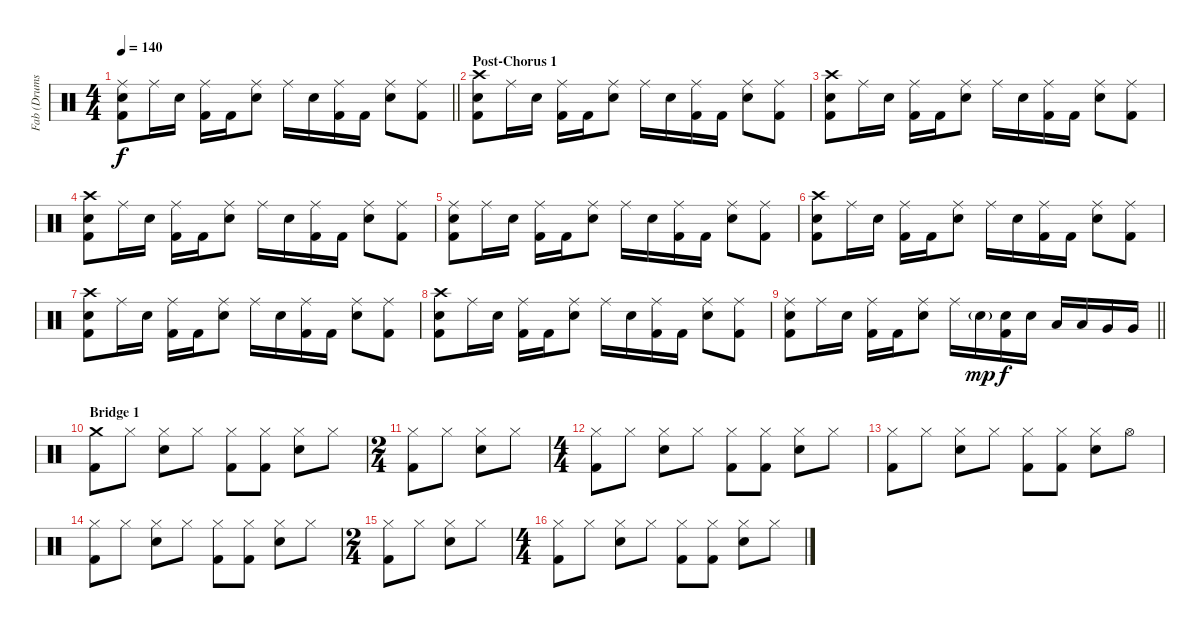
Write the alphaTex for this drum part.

\track ("Fab (Drums)" "Fab (Drums") {instrument percussion}
\staff {score}
\articulation defaults
\ts (4 4)
\tempo 140
\clef neutral
\barLineRight lightlight
\ks c
("Ride (middle)" "Snare (hit) 2" "Kick (hit) 2").8{dy f} "Ride (middle)".16 "Snare (hit) 2".16 ("Ride (middle)" "Kick (hit) 2").16 "Kick (hit) 2".16 ("Ride (middle)" "Snare (hit) 2").8 "Ride (middle)".16 "Snare (hit) 2".16 ("Ride (middle)" "Kick (hit) 2").16 "Kick (hit) 2".16 ("Ride (middle)" "Snare (hit) 2").8 ("Ride (middle)" "Kick (hit) 2").8 |
\section ("" "Post-Chorus 1")
("Crash high (hit)" "Snare (hit) 2" "Kick (hit) 2").8 "Ride (middle)".16 "Snare (hit) 2".16 ("Ride (middle)" "Kick (hit) 2").16 "Kick (hit) 2".16 ("Ride (middle)" "Snare (hit) 2").8 "Ride (middle)".16 "Snare (hit) 2".16 ("Ride (middle)" "Kick (hit) 2").16 "Kick (hit) 2".16 ("Ride (middle)" "Snare (hit) 2").8 ("Ride (middle)" "Kick (hit) 2").8 |
("Crash high (hit)" "Snare (hit) 2" "Kick (hit) 2").8 "Ride (middle)".16 "Snare (hit) 2".16 ("Ride (middle)" "Kick (hit) 2").16 "Kick (hit) 2".16 ("Ride (middle)" "Snare (hit) 2").8 "Ride (middle)".16 "Snare (hit) 2".16 ("Ride (middle)" "Kick (hit) 2").16 "Kick (hit) 2".16 ("Ride (middle)" "Snare (hit) 2").8 ("Ride (middle)" "Kick (hit) 2").8 |
("Crash high (hit)" "Snare (hit) 2" "Kick (hit) 2").8 "Ride (middle)".16 "Snare (hit) 2".16 ("Ride (middle)" "Kick (hit) 2").16 "Kick (hit) 2".16 ("Ride (middle)" "Snare (hit) 2").8 "Ride (middle)".16 "Snare (hit) 2".16 ("Ride (middle)" "Kick (hit) 2").16 "Kick (hit) 2".16 ("Ride (middle)" "Snare (hit) 2").8 ("Ride (middle)" "Kick (hit) 2").8 |
("Ride (middle)" "Snare (hit) 2" "Kick (hit) 2").8 "Ride (middle)".16 "Snare (hit) 2".16 ("Ride (middle)" "Kick (hit) 2").16 "Kick (hit) 2".16 ("Ride (middle)" "Snare (hit) 2").8 "Ride (middle)".16 "Snare (hit) 2".16 ("Ride (middle)" "Kick (hit) 2").16 "Kick (hit) 2".16 ("Ride (middle)" "Snare (hit) 2").8 ("Ride (middle)" "Kick (hit) 2").8 |
("Crash high (hit)" "Snare (hit) 2" "Kick (hit) 2").8 "Ride (middle)".16 "Snare (hit) 2".16 ("Ride (middle)" "Kick (hit) 2").16 "Kick (hit) 2".16 ("Ride (middle)" "Snare (hit) 2").8 "Ride (middle)".16 "Snare (hit) 2".16 ("Ride (middle)" "Kick (hit) 2").16 "Kick (hit) 2".16 ("Ride (middle)" "Snare (hit) 2").8 ("Ride (middle)" "Kick (hit) 2").8 |
("Crash high (hit)" "Snare (hit) 2" "Kick (hit) 2").8 "Ride (middle)".16 "Snare (hit) 2".16 ("Ride (middle)" "Kick (hit) 2").16 "Kick (hit) 2".16 ("Ride (middle)" "Snare (hit) 2").8 "Ride (middle)".16 "Snare (hit) 2".16 ("Ride (middle)" "Kick (hit) 2").16 "Kick (hit) 2".16 ("Ride (middle)" "Snare (hit) 2").8 ("Ride (middle)" "Kick (hit) 2").8 |
("Crash high (hit)" "Snare (hit) 2" "Kick (hit) 2").8 "Ride (middle)".16 "Snare (hit) 2".16 ("Ride (middle)" "Kick (hit) 2").16 "Kick (hit) 2".16 ("Ride (middle)" "Snare (hit) 2").8 "Ride (middle)".16 "Snare (hit) 2".16 ("Ride (middle)" "Kick (hit) 2").16 "Kick (hit) 2".16 ("Ride (middle)" "Snare (hit) 2").8 ("Ride (middle)" "Kick (hit) 2").8 |
\barLineRight lightlight
("Ride (middle)" "Snare (hit) 2" "Kick (hit) 2").8 "Ride (middle)".16 "Snare (hit) 2".16 ("Ride (middle)" "Kick (hit) 2").16 "Kick (hit) 2".16 ("Ride (middle)" "Snare (hit) 2").8 "Ride (middle)".16 "Snare (hit) 2"{g}.16{dy mp} ("Snare (hit) 2" "Kick (hit) 2").16{dy f} "Snare (hit) 2".16 "Low Tom (hit)".16 "Low Tom (hit)".16 "Very Low Tom (hit)".16 "Very Low Tom (hit)".16 |
\section ("" "Bridge 1")
("Crash medium (hit)" "Kick (hit) 2").8 "Hi-Hat (closed)".8 ("Hi-Hat (closed)" "Snare (hit) 2").8 "Hi-Hat (closed)".8 ("Hi-Hat (closed)" "Kick (hit) 2").8 ("Hi-Hat (closed)" "Kick (hit) 2").8 ("Hi-Hat (closed)" "Snare (hit) 2").8 "Hi-Hat (closed)".8 |
\ts (2 4)
("Hi-Hat (closed)" "Kick (hit) 2").8 "Hi-Hat (closed)".8 ("Hi-Hat (closed)" "Snare (hit) 2").8 "Hi-Hat (closed)".8 |
\ts (4 4)
("Hi-Hat (closed)" "Kick (hit) 2").8 "Hi-Hat (closed)".8 ("Hi-Hat (closed)" "Snare (hit) 2").8 "Hi-Hat (closed)".8 ("Hi-Hat (closed)" "Kick (hit) 2").8 ("Hi-Hat (closed)" "Kick (hit) 2").8 ("Hi-Hat (closed)" "Snare (hit) 2").8 "Hi-Hat (closed)".8 |
("Hi-Hat (closed)" "Kick (hit) 2").8 "Hi-Hat (closed)".8 ("Hi-Hat (closed)" "Snare (hit) 2").8 "Hi-Hat (closed)".8 ("Hi-Hat (closed)" "Kick (hit) 2").8 ("Hi-Hat (closed)" "Kick (hit) 2").8 ("Hi-Hat (closed)" "Snare (hit) 2").8 "Hi-Hat (open)".8 |
("Hi-Hat (closed)" "Kick (hit) 2").8 "Hi-Hat (closed)".8 ("Hi-Hat (closed)" "Snare (hit) 2").8 "Hi-Hat (closed)".8 ("Hi-Hat (closed)" "Kick (hit) 2").8 ("Hi-Hat (closed)" "Kick (hit) 2").8 ("Hi-Hat (closed)" "Snare (hit) 2").8 "Hi-Hat (closed)".8 |
\ts (2 4)
("Hi-Hat (closed)" "Kick (hit) 2").8 "Hi-Hat (closed)".8 ("Hi-Hat (closed)" "Snare (hit) 2").8 "Hi-Hat (closed)".8 |
\ts (4 4)
("Hi-Hat (closed)" "Kick (hit) 2").8 "Hi-Hat (closed)".8 ("Hi-Hat (closed)" "Snare (hit) 2").8 "Hi-Hat (closed)".8 ("Hi-Hat (closed)" "Kick (hit) 2").8 ("Hi-Hat (closed)" "Kick (hit) 2").8 ("Hi-Hat (closed)" "Snare (hit) 2").8 "Hi-Hat (closed)".8
